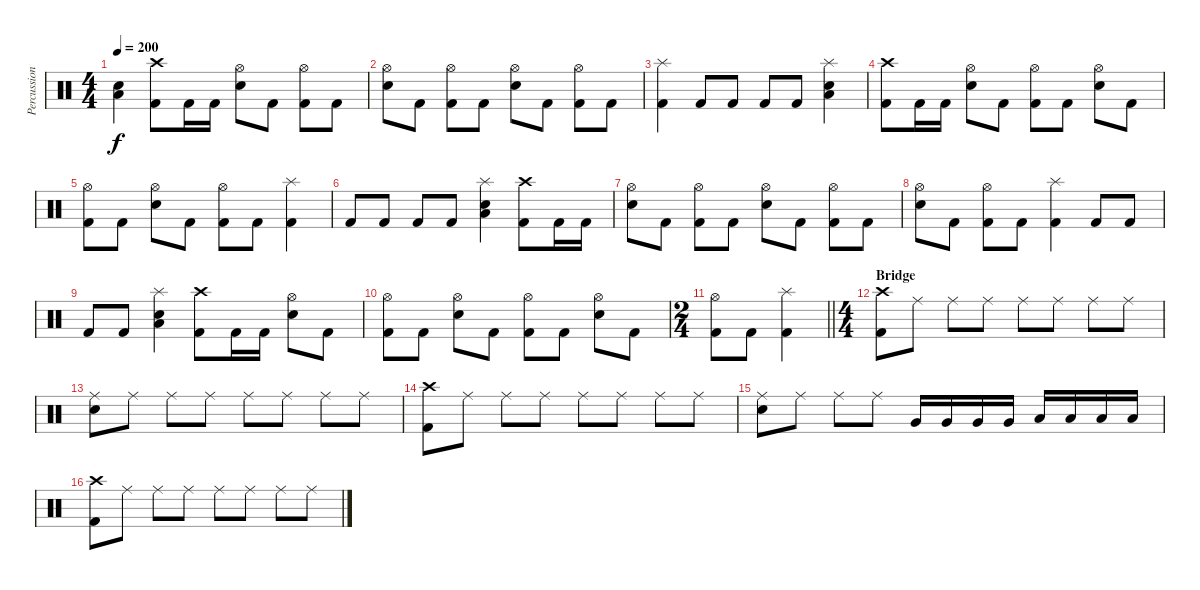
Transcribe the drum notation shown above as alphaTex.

\track ("Percussion" "Percussion") {instrument percussion}
\staff
\articulation defaults
\ts (4 4)
\tempo 200
\clef neutral
\ks c
("Electric Snare (hit)" "Low Floor Tom (hit)").4{dy f} ("Crash high (hit)" "Kick (hit) 2").8 "Kick (hit) 2".16 "Kick (hit) 2".16 ("Hi-Hat (open)" "Electric Snare (hit)").8 "Kick (hit) 2".8 ("Hi-Hat (open)" "Kick (hit) 2").8 "Kick (hit) 2".8 |
("Hi-Hat (open)" "Electric Snare (hit)").8 "Kick (hit) 2".8 ("Hi-Hat (open)" "Kick (hit) 2").8 "Kick (hit) 2".8 ("Hi-Hat (open)" "Electric Snare (hit)").8 "Kick (hit) 2".8 ("Hi-Hat (open)" "Kick (hit) 2").8 "Kick (hit) 2".8 |
("Splash (hit)" "Kick (hit) 2").4 "Kick (hit) 2".8 "Kick (hit) 2".8 "Kick (hit) 2".8 "Kick (hit) 2".8 ("Splash (hit)" "Electric Snare (hit)" "Low Floor Tom (hit)").4 |
("Crash high (hit)" "Kick (hit) 2").8 "Kick (hit) 2".16 "Kick (hit) 2".16 ("Hi-Hat (open)" "Electric Snare (hit)").8 "Kick (hit) 2".8 ("Hi-Hat (open)" "Kick (hit) 2").8 "Kick (hit) 2".8 ("Hi-Hat (open)" "Electric Snare (hit)").8 "Kick (hit) 2".8 |
("Hi-Hat (open)" "Kick (hit) 2").8 "Kick (hit) 2".8 ("Hi-Hat (open)" "Electric Snare (hit)").8 "Kick (hit) 2".8 ("Hi-Hat (open)" "Kick (hit) 2").8 "Kick (hit) 2".8 ("Splash (hit)" "Kick (hit) 2").4 |
"Kick (hit) 2".8 "Kick (hit) 2".8 "Kick (hit) 2".8 "Kick (hit) 2".8 ("Splash (hit)" "Electric Snare (hit)" "Low Floor Tom (hit)").4 ("Crash high (hit)" "Kick (hit) 2").8 "Kick (hit) 2".16 "Kick (hit) 2".16 |
("Hi-Hat (open)" "Electric Snare (hit)").8 "Kick (hit) 2".8 ("Hi-Hat (open)" "Kick (hit) 2").8 "Kick (hit) 2".8 ("Hi-Hat (open)" "Electric Snare (hit)").8 "Kick (hit) 2".8 ("Hi-Hat (open)" "Kick (hit) 2").8 "Kick (hit) 2".8 |
("Hi-Hat (open)" "Electric Snare (hit)").8 "Kick (hit) 2".8 ("Hi-Hat (open)" "Kick (hit) 2").8 "Kick (hit) 2".8 ("Splash (hit)" "Kick (hit) 2").4 "Kick (hit) 2".8 "Kick (hit) 2".8 |
"Kick (hit) 2".8 "Kick (hit) 2".8 ("Splash (hit)" "Electric Snare (hit)" "Low Floor Tom (hit)").4 ("Crash high (hit)" "Kick (hit) 2").8 "Kick (hit) 2".16 "Kick (hit) 2".16 ("Hi-Hat (open)" "Electric Snare (hit)").8 "Kick (hit) 2".8 |
("Hi-Hat (open)" "Kick (hit) 2").8 "Kick (hit) 2".8 ("Hi-Hat (open)" "Electric Snare (hit)").8 "Kick (hit) 2".8 ("Hi-Hat (open)" "Kick (hit) 2").8 "Kick (hit) 2".8 ("Hi-Hat (open)" "Electric Snare (hit)").8 "Kick (hit) 2".8 |
\ts (2 4)
\barLineRight lightlight
("Hi-Hat (open)" "Kick (hit) 2").8 "Kick (hit) 2".8 ("Splash (hit)" "Kick (hit) 2").4 |
\ts (4 4)
\section ("" "Bridge")
("Crash high (hit)" "Kick (hit) 2").8 "Ride (middle)".8 "Ride (middle)".8 "Ride (middle)".8 "Ride (middle)".8 "Ride (middle)".8 "Ride (middle)".8 "Ride (middle)".8 |
("Ride (middle)" "Electric Snare (hit)").8 "Ride (middle)".8 "Ride (middle)".8 "Ride (middle)".8 "Ride (middle)".8 "Ride (middle)".8 "Ride (middle)".8 "Ride (middle)".8 |
("Crash high (hit)" "Kick (hit) 2").8 "Ride (middle)".8 "Ride (middle)".8 "Ride (middle)".8 "Ride (middle)".8 "Ride (middle)".8 "Ride (middle)".8 "Ride (middle)".8 |
("Ride (middle)" "Electric Snare (hit)").8 "Ride (middle)".8 "Ride (middle)".8 "Ride (middle)".8 "Very Low Tom (hit)".16 "Very Low Tom (hit)".16 "Very Low Tom (hit)".16 "Very Low Tom (hit)".16 "Low Floor Tom (hit)".16 "Low Floor Tom (hit)".16 "Low Floor Tom (hit)".16 "Low Floor Tom (hit)".16 |
("Crash high (hit)" "Kick (hit) 2").8 "Ride (middle)".8 "Ride (middle)".8 "Ride (middle)".8 "Ride (middle)".8 "Ride (middle)".8 "Ride (middle)".8 "Ride (middle)".8
